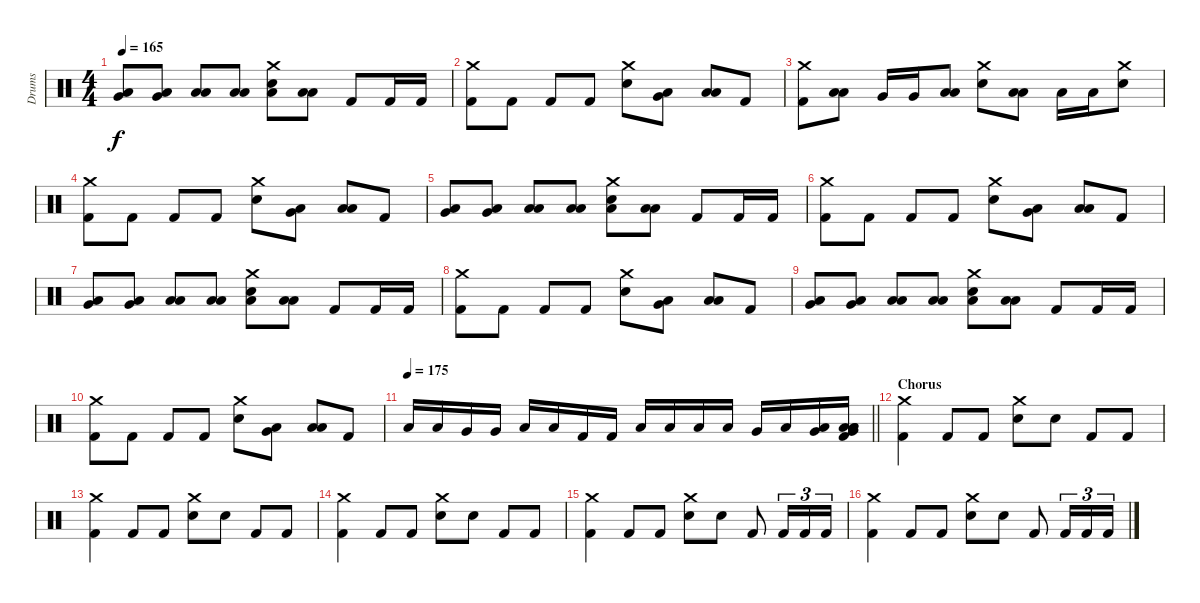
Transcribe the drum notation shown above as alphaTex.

\track ("Drums" "Drums") {instrument percussion}
\staff {score}
\articulation defaults
\ts (4 4)
\tempo 165
\clef neutral
\ks c
("Low Tom (hit)" "Very Low Tom (hit)").8{dy f} ("Low Tom (hit)" "Very Low Tom (hit)").8 ("Low Tom (hit)" "Low Floor Tom (hit)").8 ("Low Tom (hit)" "Low Floor Tom (hit)").8 ("Crash medium (hit)" "Electric Snare (hit)" "Low Tom (hit)").8 ("Low Tom (hit)" "Low Tom (hit)").8 "Kick (hit) 2".8 "Kick (hit) 2".16 "Kick (hit) 2".16 |
("Crash medium (hit)" "Kick (hit) 2").8 "Kick (hit) 2".8 "Kick (hit) 2".8 "Kick (hit) 2".8 ("Crash medium (hit)" "Electric Snare (hit)").8 ("Low Tom (hit)" "Very Low Tom (hit)").8 ("Low Tom (hit)" "Low Floor Tom (hit)").8 "Kick (hit) 2".8 |
("Crash medium (hit)" "Kick (hit) 2").8 ("Low Tom (hit)" "Low Tom (hit)").8 "Very Low Tom (hit)".16 "Very Low Tom (hit)".16 ("Low Tom (hit)" "Low Floor Tom (hit)").8 ("Crash medium (hit)" "Electric Snare (hit)").8 ("Low Tom (hit)" "Low Tom (hit)").8 "Low Tom (hit)".16 "Low Tom (hit)".16 ("Crash medium (hit)" "Electric Snare (hit)").8 |
("Crash medium (hit)" "Kick (hit) 2").8 "Kick (hit) 2".8 "Kick (hit) 2".8 "Kick (hit) 2".8 ("Crash medium (hit)" "Electric Snare (hit)").8 ("Low Tom (hit)" "Very Low Tom (hit)").8 ("Low Tom (hit)" "Low Floor Tom (hit)").8 "Kick (hit) 2".8 |
("Low Tom (hit)" "Very Low Tom (hit)").8 ("Low Tom (hit)" "Very Low Tom (hit)").8 ("Low Tom (hit)" "Low Floor Tom (hit)").8 ("Low Tom (hit)" "Low Floor Tom (hit)").8 ("Crash medium (hit)" "Electric Snare (hit)" "Low Tom (hit)").8 ("Low Tom (hit)" "Low Tom (hit)").8 "Kick (hit) 2".8 "Kick (hit) 2".16 "Kick (hit) 2".16 |
("Crash medium (hit)" "Kick (hit) 2").8 "Kick (hit) 2".8 "Kick (hit) 2".8 "Kick (hit) 2".8 ("Crash medium (hit)" "Electric Snare (hit)").8 ("Low Tom (hit)" "Very Low Tom (hit)").8 ("Low Tom (hit)" "Low Floor Tom (hit)").8 "Kick (hit) 2".8 |
("Low Tom (hit)" "Very Low Tom (hit)").8 ("Low Tom (hit)" "Very Low Tom (hit)").8 ("Low Tom (hit)" "Low Floor Tom (hit)").8 ("Low Tom (hit)" "Low Floor Tom (hit)").8 ("Crash medium (hit)" "Electric Snare (hit)" "Low Tom (hit)").8 ("Low Tom (hit)" "Low Tom (hit)").8 "Kick (hit) 2".8 "Kick (hit) 2".16 "Kick (hit) 2".16 |
("Crash medium (hit)" "Kick (hit) 2").8 "Kick (hit) 2".8 "Kick (hit) 2".8 "Kick (hit) 2".8 ("Crash medium (hit)" "Electric Snare (hit)").8 ("Low Tom (hit)" "Very Low Tom (hit)").8 ("Low Tom (hit)" "Low Floor Tom (hit)").8 "Kick (hit) 2".8 |
("Low Tom (hit)" "Very Low Tom (hit)").8 ("Low Tom (hit)" "Very Low Tom (hit)").8 ("Low Tom (hit)" "Low Floor Tom (hit)").8 ("Low Tom (hit)" "Low Floor Tom (hit)").8 ("Crash medium (hit)" "Electric Snare (hit)" "Low Tom (hit)").8 ("Low Tom (hit)" "Low Tom (hit)").8 "Kick (hit) 2".8 "Kick (hit) 2".16 "Kick (hit) 2".16 |
("Crash medium (hit)" "Kick (hit) 2").8 "Kick (hit) 2".8 "Kick (hit) 2".8 "Kick (hit) 2".8 ("Crash medium (hit)" "Electric Snare (hit)").8 ("Low Tom (hit)" "Very Low Tom (hit)").8 ("Low Tom (hit)" "Low Floor Tom (hit)").8 "Kick (hit) 2".8 |
\tempo 175
\barLineRight lightlight "Low Tom (hit)".16 "Low Tom (hit)".16 "Very Low Tom (hit)".16 "Very Low Tom (hit)".16 "Low Floor Tom (hit)".16 "Low Floor Tom (hit)".16 "Kick (hit) 2".16 "Kick (hit) 2".16 "Low Floor Tom (hit)".16 "Low Floor Tom (hit)".16 "Low Tom (hit)".16 "Low Tom (hit)".16 "Very Low Tom (hit)".16 "Low Floor Tom (hit)".16
("Very Low Tom (hit)" "Low Floor Tom (hit)").16 ("Low Floor Tom (hit)" "Low Floor Tom (hit)" "Very Low Tom (hit)" "Low Tom (hit)" "Kick (hit) 2").16 |
\section ("" "Chorus")
("Crash medium (hit)" "Kick (hit) 2").4 "Kick (hit) 2".8 "Kick (hit) 2".8 ("Crash medium (hit)" "Electric Snare (hit)").8 "Electric Snare (hit)".8 "Kick (hit) 2".8 "Kick (hit) 2".8 |
("Crash medium (hit)" "Kick (hit) 2").4 "Kick (hit) 2".8 "Kick (hit) 2".8 ("Crash medium (hit)" "Electric Snare (hit)").8 "Electric Snare (hit)".8 "Kick (hit) 2".8 "Kick (hit) 2".8 |
("Crash medium (hit)" "Kick (hit) 2").4 "Kick (hit) 2".8 "Kick (hit) 2".8 ("Crash medium (hit)" "Electric Snare (hit)").8 "Electric Snare (hit)".8 "Kick (hit) 2".8 "Kick (hit) 2".8 |
("Crash medium (hit)" "Kick (hit) 2").4 "Kick (hit) 2".8 "Kick (hit) 2".8 ("Crash medium (hit)" "Electric Snare (hit)").8 "Electric Snare (hit)".8 "Kick (hit) 2".8 "Kick (hit) 2".16{tu (3 2)} "Kick (hit) 2".16{tu (3 2)} "Kick (hit) 2".16{tu (3 2)} |
("Crash medium (hit)" "Kick (hit) 2").4 "Kick (hit) 2".8 "Kick (hit) 2".8 ("Crash medium (hit)" "Electric Snare (hit)").8 "Electric Snare (hit)".8 "Kick (hit) 2".8 "Kick (hit) 2".16{tu (3 2)} "Kick (hit) 2".16{tu (3 2)} "Kick (hit) 2".16{tu (3 2)}
